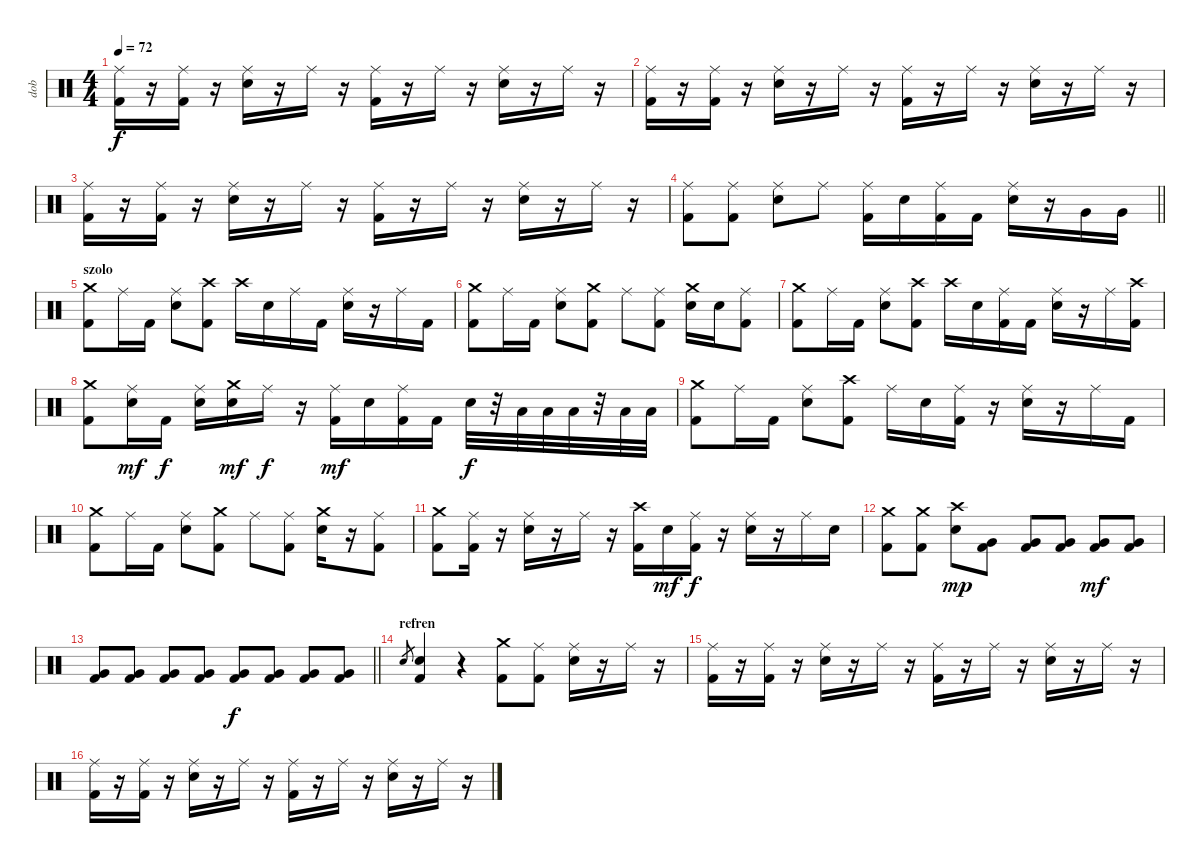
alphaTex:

\track ("dob" "dob") {instrument percussion}
\staff {score}
\articulation defaults
\ts (4 4)
\tempo 72
\clef neutral
\ks c
("Kick (hit) 2" "Ride (middle)").16{dy f} r.16 ("Ride (middle)" "Kick (hit) 2").16 r.16 ("Snare (hit) 2" "Ride (middle)").16 r.16 "Ride (middle)".16 r.16 ("Kick (hit) 2" "Ride (middle)").16 r.16 "Ride (middle)".16 r.16 ("Snare (hit) 2" "Ride (middle)").16 r.16 "Ride (middle)".16 r.16 |
("Kick (hit) 2" "Ride (middle)").16 r.16 ("Ride (middle)" "Kick (hit) 2").16 r.16 ("Snare (hit) 2" "Ride (middle)").16 r.16 "Ride (middle)".16 r.16 ("Kick (hit) 2" "Ride (middle)").16 r.16 "Ride (middle)".16 r.16 ("Snare (hit) 2" "Ride (middle)").16 r.16 "Ride (middle)".16 r.16 |
("Kick (hit) 2" "Ride (middle)").16 r.16 ("Ride (middle)" "Kick (hit) 2").16 r.16 ("Snare (hit) 2" "Ride (middle)").16 r.16 "Ride (middle)".16 r.16 ("Kick (hit) 2" "Ride (middle)").16 r.16 "Ride (middle)".16 r.16 ("Snare (hit) 2" "Ride (middle)").16 r.16 "Ride (middle)".16 r.16 |
\barLineRight lightlight
("Kick (hit) 2" "Ride (middle)").8 ("Kick (hit) 2" "Ride (middle)").8 ("Snare (hit) 2" "Ride (middle)").8 "Ride (middle)".8 ("Ride (middle)" "Kick (hit) 2").16 "Snare (hit) 2".16 ("Ride (middle)" "Kick (hit) 2").16 "Kick (hit) 2".16 ("Ride (middle)" "Snare (hit) 2").16 r.16 "Very Low Tom (hit)".16 "Very Low Tom (hit)".16 |
\section ("" "szolo")
("Crash medium (hit)" "Kick (hit) 2").8 "Ride (middle)".16 "Kick (hit) 2".16 ("Ride (middle)" "Snare (hit) 2").8 ("Crash high (hit)" "Kick (hit) 2").8 "Crash high (hit)".16 "Snare (hit) 2".16 "Ride (middle)".16 "Kick (hit) 2".16 ("Ride (middle)" "Snare (hit) 2").16 r.16 "Ride (middle)".16 "Kick (hit) 2".16 |
("Crash medium (hit)" "Kick (hit) 2").8 "Ride (middle)".16 "Kick (hit) 2".16 ("Ride (middle)" "Snare (hit) 2").8 ("Crash medium (hit)" "Kick (hit) 2").8 "Ride (middle)".8 ("Ride (middle)" "Kick (hit) 2").8 ("Crash medium (hit)" "Snare (hit) 2").16 "Snare (hit) 2".16 ("Ride (middle)" "Kick (hit) 2").8 |
("Crash medium (hit)" "Kick (hit) 2").8 "Ride (middle)".16 "Kick (hit) 2".16 ("Ride (middle)" "Snare (hit) 2").8 ("Crash high (hit)" "Kick (hit) 2").8 "Crash high (hit)".16 "Snare (hit) 2".16 ("Ride (middle)" "Kick (hit) 2").16 "Kick (hit) 2".16 ("Ride (middle)" "Snare (hit) 2").16 r.16 "Ride (middle)".16 ("Kick (hit) 2" "Crash high (hit)").16 |
("Crash medium (hit)" "Kick (hit) 2").8 ("Snare (hit) 2" "Ride (middle)").16{dy mf} "Kick (hit) 2".16{dy f} ("Ride (middle)" "Snare (hit) 2").16 ("Snare (hit) 2" "Crash medium (hit)").16{dy mf} "Ride (middle)".16{dy f} r.16 ("Ride (middle)" "Kick (hit) 2").16{dy mf} "Snare (hit) 2".16 ("Ride (middle)" "Kick (hit) 2").16 "Kick (hit) 2".16 "Electric Snare (hit)".32{dy f} r.32 "Low Tom (hit)".32 "Low Tom (hit)".32 "Low Floor Tom (hit)".32 r.32 "Low Floor Tom (hit)".32 "Low Floor Tom (hit)".32 |
("Crash medium (hit)" "Kick (hit) 2").8 "Ride (middle)".16 "Kick (hit) 2".16 ("Ride (middle)" "Snare (hit) 2").8 ("Crash high (hit)" "Kick (hit) 2").8 "Ride (middle)".16 "Snare (hit) 2".16 ("Ride (middle)" "Kick (hit) 2").16 r.16 ("Ride (middle)" "Snare (hit) 2").16 r.16 "Ride (middle)".16 "Kick (hit) 2".16 |
("Crash medium (hit)" "Kick (hit) 2").8 "Ride (middle)".16 "Kick (hit) 2".16 ("Ride (middle)" "Snare (hit) 2").8 ("Crash medium (hit)" "Kick (hit) 2").8 "Ride (middle)".8 ("Ride (middle)" "Kick (hit) 2").8 ("Crash medium (hit)" "Snare (hit) 2").16 r.16 ("Ride (middle)" "Kick (hit) 2").8 |
("Crash medium (hit)" "Kick (hit) 2").8 ("Kick (hit) 2" "Ride (middle)").16 r.16 ("Ride (middle)" "Snare (hit) 2").16 r.16 "Ride (middle)".16 r.16 ("Crash high (hit)" "Kick (hit) 2").16 "Snare (hit) 2".16{dy mf} ("Ride (middle)" "Kick (hit) 2").16{dy f} r.16 ("Ride (middle)" "Snare (hit) 2").16 r.16 "Ride (middle)".16 "Snare (hit) 2".16 |
("Crash medium (hit)" "Kick (hit) 2").8 ("Kick (hit) 2" "Crash medium (hit)").8 ("Snare (hit) 2" "Crash high (hit)").8{dy mp} ("Kick (hit) 2" "Very Low Tom (hit)").8 ("Kick (hit) 2" "Very Low Tom (hit)").8 ("Kick (hit) 2" "Very Low Tom (hit)").8 ("Kick (hit) 2" "Very Low Tom (hit)").8{dy mf} ("Kick (hit) 2" "Very Low Tom (hit)").8 |
\barLineRight lightlight
("Kick (hit) 2" "Very Low Tom (hit)").8 ("Kick (hit) 2" "Very Low Tom (hit)").8 ("Kick (hit) 2" "Very Low Tom (hit)").8 ("Kick (hit) 2" "Very Low Tom (hit)").8 ("Kick (hit) 2" "Very Low Tom (hit)").8{dy f} ("Kick (hit) 2" "Very Low Tom (hit)").8 ("Kick (hit) 2" "Very Low Tom (hit)").8 ("Kick (hit) 2" "Very Low Tom (hit)").8 |
\section ("" "refren")
"Snare (hit) 2".8{gr} ("Snare (hit) 2" "Kick (hit) 2").4 r.4 ("Kick (hit) 2" "Crash medium (hit)").8 ("Kick (hit) 2" "Ride (middle)").8 ("Snare (hit) 2" "Ride (middle)").16 r.16 "Ride (middle)".16 r.16 |
("Kick (hit) 2" "Ride (middle)").16 r.16 ("Ride (middle)" "Kick (hit) 2").16 r.16 ("Snare (hit) 2" "Ride (middle)").16 r.16 "Ride (middle)".16 r.16 ("Kick (hit) 2" "Ride (middle)").16 r.16 "Ride (middle)".16 r.16 ("Snare (hit) 2" "Ride (middle)").16 r.16 "Ride (middle)".16 r.16 |
("Kick (hit) 2" "Ride (middle)").16 r.16 ("Ride (middle)" "Kick (hit) 2").16 r.16 ("Snare (hit) 2" "Ride (middle)").16 r.16 "Ride (middle)".16 r.16 ("Kick (hit) 2" "Ride (middle)").16 r.16 "Ride (middle)".16 r.16 ("Snare (hit) 2" "Ride (middle)").16 r.16 "Ride (middle)".16 r.16
